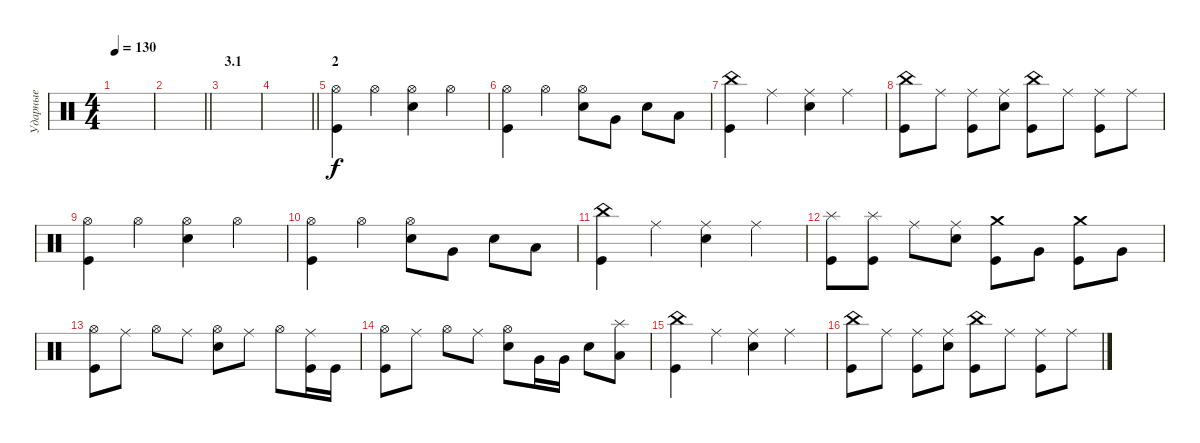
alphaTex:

\track ("Ударные" "Ударные") {instrument percussion}
\staff {score}
\articulation defaults
\ts (4 4)
\tempo 130
\clef neutral
\ks c
|
\barLineRight lightlight
|
\section ("" "3.1")
|
\barLineRight lightlight
|
\section ("" "2")
("Hi-Hat (open)" "Kick (hit)").4 "Hi-Hat (open)".4 ("Hi-Hat (open)" "Electric Snare (hit)").4 "Hi-Hat (open)".4 |
("Hi-Hat (open)" "Kick (hit)").4 "Hi-Hat (open)".4 ("Hi-Hat (open)" "Electric Snare (hit)").8 "Very Low Tom (hit)".8 "Electric Snare (hit)".8 "Low Floor Tom (hit)".8 |
("China (hit)" "Kick (hit)").4 "Ride (middle)".4 ("Ride (middle)" "Electric Snare (hit)").4 "Ride (middle)".4 |
("China (hit)" "Kick (hit)").8 "Ride (middle)".8 ("Ride (middle)" "Kick (hit)").8 ("Ride (middle)" "Electric Snare (hit)").8 ("China (hit)" "Kick (hit)").8 "Ride (middle)".8 ("Ride (middle)" "Kick (hit)").8 "Ride (middle)".8 |
("Hi-Hat (open)" "Kick (hit)").4 "Hi-Hat (open)".4 ("Hi-Hat (open)" "Electric Snare (hit)").4 "Hi-Hat (open)".4 |
("Hi-Hat (open)" "Kick (hit)").4 "Hi-Hat (open)".4 ("Hi-Hat (open)" "Electric Snare (hit)").8 "Very Low Tom (hit)".8 "Electric Snare (hit)".8 "Low Floor Tom (hit)".8 |
("China (hit)" "Kick (hit)").4 "Ride (middle)".4 ("Ride (middle)" "Electric Snare (hit)").4 "Ride (middle)".4 |
("Splash (hit)" "Kick (hit)").8 ("Splash (hit)" "Kick (hit)").8 "Ride (middle)".8 ("Ride (middle)" "Electric Snare (hit)").8 ("Crash medium (hit)" "Kick (hit)").8 "Very Low Tom (hit)".8 ("Crash medium (hit)" "Kick (hit)").8 "Very Low Tom (hit)".8 |
("Hi-Hat (open)" "Kick (hit)").8 "Ride (middle)".8 "Hi-Hat (open)".8 "Ride (middle)".8 ("Hi-Hat (open)" "Electric Snare (hit)").8 "Ride (middle)".8 "Hi-Hat (open)".8 ("Ride (middle)" "Kick (hit)").16 "Kick (hit)".16 |
("Hi-Hat (open)" "Kick (hit)").8 "Ride (middle)".8 "Hi-Hat (open)".8 "Ride (middle)".8 ("Hi-Hat (open)" "Electric Snare (hit)").8 "Very Low Tom (hit)".16 "Very Low Tom (hit)".16 "Electric Snare (hit)".8 ("Splash (hit)" "Low Floor Tom (hit)").8 |
("China (hit)" "Kick (hit)").4 "Ride (middle)".4 ("Ride (middle)" "Electric Snare (hit)").4 "Ride (middle)".4 |
("China (hit)" "Kick (hit)").8 "Ride (middle)".8 ("Ride (middle)" "Kick (hit)").8 ("Ride (middle)" "Electric Snare (hit)").8 ("China (hit)" "Kick (hit)").8 "Ride (middle)".8 ("Ride (middle)" "Kick (hit)").8 "Ride (middle)".8
